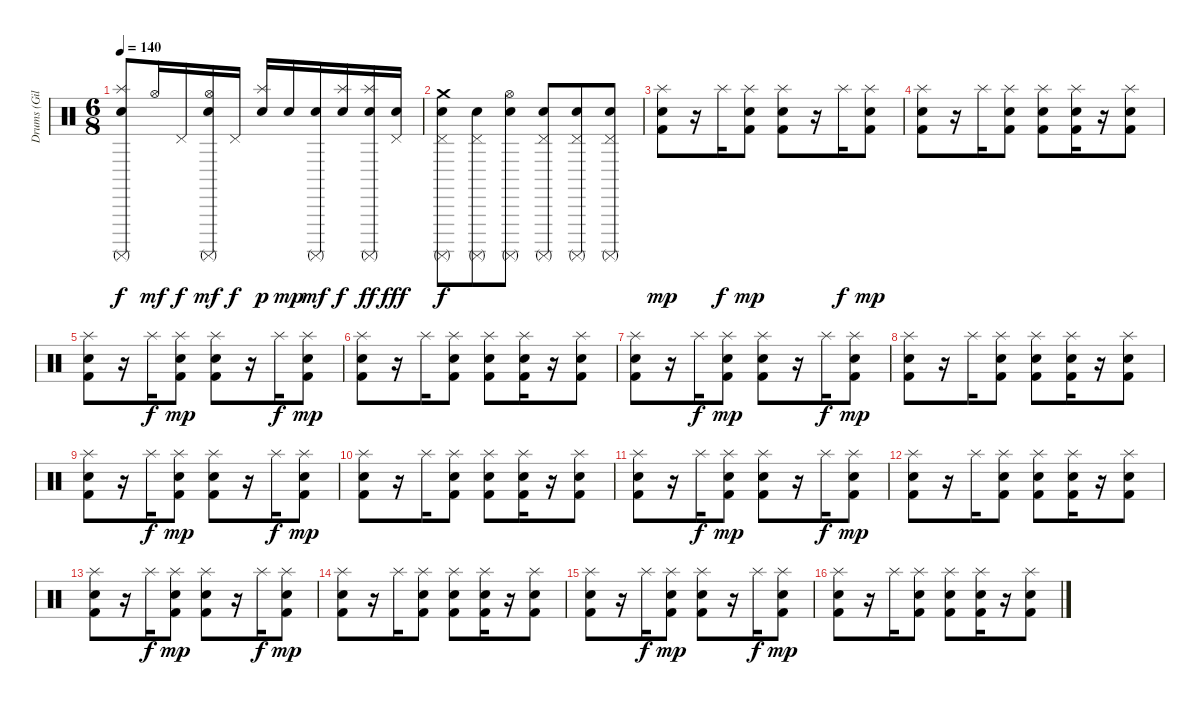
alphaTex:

\track ("Drums (Giles)" "Drums (Gil") {instrument percussion}
\staff {score}
\articulation defaults
\ts (6 8)
\tempo 140
\clef neutral
\ks c
("Splash (hit)" "Electric Snare (hit)" "Surdo (mute)").8{dy f} "Hi-Hat (open)".16{dy mf} "Pedal Hi-Hat (hit)".16{dy f} ("Hi-Hat (open)" "Electric Snare (hit)" "Surdo (mute)").16{dy mf} "Pedal Hi-Hat (hit)".16{dy f} ("Splash (hit)" "Electric Snare (hit)").16{dy p} "Electric Snare (hit)".16{dy mp} ("Electric Snare (hit)" "Surdo (mute)").16{dy mf} ("Splash (hit)" "Electric Snare (hit)").16{dy f} ("Splash (hit)" "Electric Snare (hit)" "Surdo (mute)").16{dy ff} ("Pedal Hi-Hat (hit)" "Electric Snare (hit)").16{dy fff} |
("Crash medium (hit)" "Pedal Hi-Hat (hit)" "Electric Snare (hit)" "Surdo (mute)").8{dy f} ("Pedal Hi-Hat (hit)" "Electric Snare (hit)" "Surdo (mute)").8 ("Hi-Hat (open)" "Electric Snare (hit)" "Surdo (mute)").8 ("Pedal Hi-Hat (hit)" "Electric Snare (hit)" "Surdo (mute)").8 ("Pedal Hi-Hat (hit)" "Electric Snare (hit)" "Surdo (mute)").8 ("Pedal Hi-Hat (hit)" "Electric Snare (hit)" "Surdo (mute)").8 |
("Splash (hit)" "Electric Snare (hit)" "Kick (hit) 2").8{dy mp} r.16 "Splash (hit)".16{dy f} ("Splash (hit)" "Electric Snare (hit)" "Kick (hit) 2").8{dy mp} ("Splash (hit)" "Electric Snare (hit)" "Kick (hit) 2").8 r.16 "Splash (hit)".16{dy f} ("Splash (hit)" "Electric Snare (hit)" "Kick (hit) 2").8{dy mp} |
("Splash (hit)" "Electric Snare (hit)" "Kick (hit) 2").8 r.16 "Splash (hit)".16 ("Splash (hit)" "Electric Snare (hit)" "Kick (hit) 2").8 ("Splash (hit)" "Electric Snare (hit)" "Kick (hit) 2").8 ("Splash (hit)" "Electric Snare (hit)" "Kick (hit) 2").16 r.16 ("Splash (hit)" "Electric Snare (hit)" "Kick (hit) 2").8 |
("Splash (hit)" "Electric Snare (hit)" "Kick (hit) 2").8 r.16 "Splash (hit)".16{dy f} ("Splash (hit)" "Electric Snare (hit)" "Kick (hit) 2").8{dy mp} ("Splash (hit)" "Electric Snare (hit)" "Kick (hit) 2").8 r.16 "Splash (hit)".16{dy f} ("Splash (hit)" "Electric Snare (hit)" "Kick (hit) 2").8{dy mp} |
("Splash (hit)" "Electric Snare (hit)" "Kick (hit) 2").8 r.16 "Splash (hit)".16 ("Splash (hit)" "Electric Snare (hit)" "Kick (hit) 2").8 ("Splash (hit)" "Electric Snare (hit)" "Kick (hit) 2").8 ("Splash (hit)" "Electric Snare (hit)" "Kick (hit) 2").16 r.16 ("Splash (hit)" "Electric Snare (hit)" "Kick (hit) 2").8 |
("Splash (hit)" "Electric Snare (hit)" "Kick (hit) 2").8 r.16 "Splash (hit)".16{dy f} ("Splash (hit)" "Electric Snare (hit)" "Kick (hit) 2").8{dy mp} ("Splash (hit)" "Electric Snare (hit)" "Kick (hit) 2").8 r.16 "Splash (hit)".16{dy f} ("Splash (hit)" "Electric Snare (hit)" "Kick (hit) 2").8{dy mp} |
("Splash (hit)" "Electric Snare (hit)" "Kick (hit) 2").8 r.16 "Splash (hit)".16 ("Splash (hit)" "Electric Snare (hit)" "Kick (hit) 2").8 ("Splash (hit)" "Electric Snare (hit)" "Kick (hit) 2").8 ("Splash (hit)" "Electric Snare (hit)" "Kick (hit) 2").16 r.16 ("Splash (hit)" "Electric Snare (hit)" "Kick (hit) 2").8 |
("Splash (hit)" "Electric Snare (hit)" "Kick (hit) 2").8 r.16 "Splash (hit)".16{dy f} ("Splash (hit)" "Electric Snare (hit)" "Kick (hit) 2").8{dy mp} ("Splash (hit)" "Electric Snare (hit)" "Kick (hit) 2").8 r.16 "Splash (hit)".16{dy f} ("Splash (hit)" "Electric Snare (hit)" "Kick (hit) 2").8{dy mp} |
("Splash (hit)" "Electric Snare (hit)" "Kick (hit) 2").8 r.16 "Splash (hit)".16 ("Splash (hit)" "Electric Snare (hit)" "Kick (hit) 2").8 ("Splash (hit)" "Electric Snare (hit)" "Kick (hit) 2").8 ("Splash (hit)" "Electric Snare (hit)" "Kick (hit) 2").16 r.16 ("Splash (hit)" "Electric Snare (hit)" "Kick (hit) 2").8 |
("Splash (hit)" "Electric Snare (hit)" "Kick (hit) 2").8 r.16 "Splash (hit)".16{dy f} ("Splash (hit)" "Electric Snare (hit)" "Kick (hit) 2").8{dy mp} ("Splash (hit)" "Electric Snare (hit)" "Kick (hit) 2").8 r.16 "Splash (hit)".16{dy f} ("Splash (hit)" "Electric Snare (hit)" "Kick (hit) 2").8{dy mp} |
("Splash (hit)" "Electric Snare (hit)" "Kick (hit) 2").8 r.16 "Splash (hit)".16 ("Splash (hit)" "Electric Snare (hit)" "Kick (hit) 2").8 ("Splash (hit)" "Electric Snare (hit)" "Kick (hit) 2").8 ("Splash (hit)" "Electric Snare (hit)" "Kick (hit) 2").16 r.16 ("Splash (hit)" "Electric Snare (hit)" "Kick (hit) 2").8 |
("Splash (hit)" "Electric Snare (hit)" "Kick (hit) 2").8 r.16 "Splash (hit)".16{dy f} ("Splash (hit)" "Electric Snare (hit)" "Kick (hit) 2").8{dy mp} ("Splash (hit)" "Electric Snare (hit)" "Kick (hit) 2").8 r.16 "Splash (hit)".16{dy f} ("Splash (hit)" "Electric Snare (hit)" "Kick (hit) 2").8{dy mp} |
("Splash (hit)" "Electric Snare (hit)" "Kick (hit) 2").8 r.16 "Splash (hit)".16 ("Splash (hit)" "Electric Snare (hit)" "Kick (hit) 2").8 ("Splash (hit)" "Electric Snare (hit)" "Kick (hit) 2").8 ("Splash (hit)" "Electric Snare (hit)" "Kick (hit) 2").16 r.16 ("Splash (hit)" "Electric Snare (hit)" "Kick (hit) 2").8 |
("Splash (hit)" "Electric Snare (hit)" "Kick (hit) 2").8 r.16 "Splash (hit)".16{dy f} ("Splash (hit)" "Electric Snare (hit)" "Kick (hit) 2").8{dy mp} ("Splash (hit)" "Electric Snare (hit)" "Kick (hit) 2").8 r.16 "Splash (hit)".16{dy f} ("Splash (hit)" "Electric Snare (hit)" "Kick (hit) 2").8{dy mp} |
("Splash (hit)" "Electric Snare (hit)" "Kick (hit) 2").8 r.16 "Splash (hit)".16 ("Splash (hit)" "Electric Snare (hit)" "Kick (hit) 2").8 ("Splash (hit)" "Electric Snare (hit)" "Kick (hit) 2").8 ("Splash (hit)" "Electric Snare (hit)" "Kick (hit) 2").16 r.16 ("Splash (hit)" "Electric Snare (hit)" "Kick (hit) 2").8
